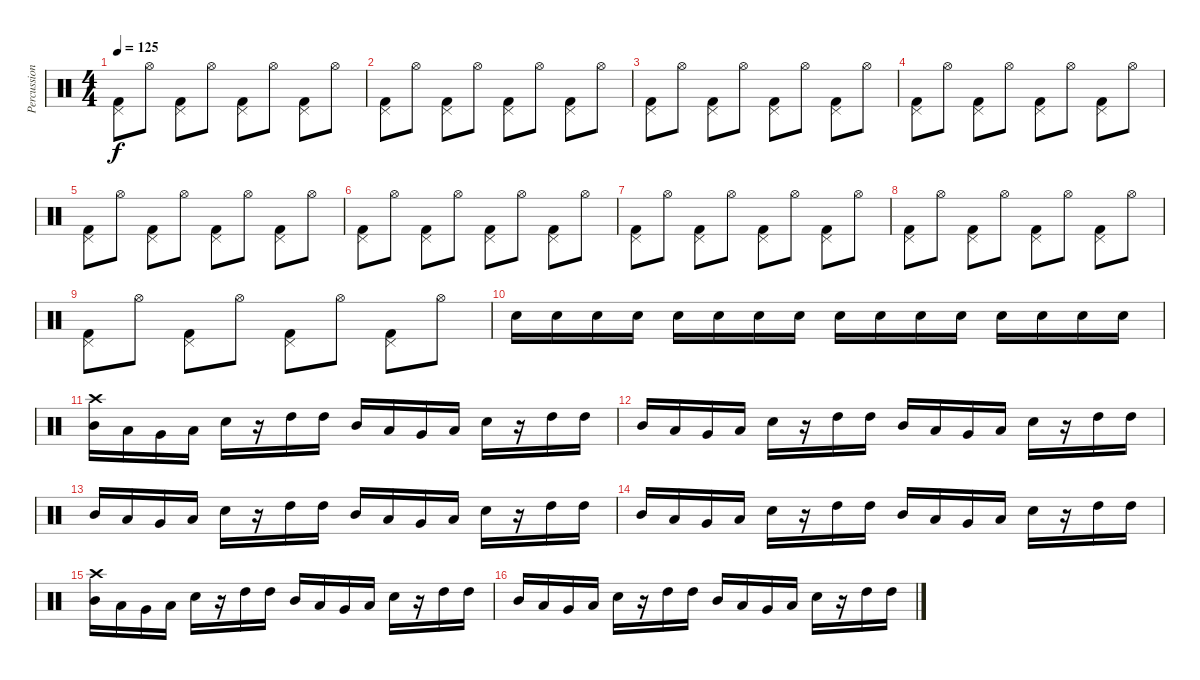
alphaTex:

\track ("Percussion" "Percussion") {instrument percussion}
\staff {score}
\articulation defaults
\ts (4 4)
\tempo 125
\clef neutral
\ks c
("Pedal Hi-Hat (hit)" "Kick (hit) 2").8{dy f} "Hi-Hat (open)".8 ("Pedal Hi-Hat (hit)" "Kick (hit) 2").8 "Hi-Hat (open)".8 ("Pedal Hi-Hat (hit)" "Kick (hit) 2").8 "Hi-Hat (open)".8 ("Pedal Hi-Hat (hit)" "Kick (hit) 2").8 "Hi-Hat (open)".8 |
("Pedal Hi-Hat (hit)" "Kick (hit) 2").8 "Hi-Hat (open)".8 ("Pedal Hi-Hat (hit)" "Kick (hit) 2").8 "Hi-Hat (open)".8 ("Pedal Hi-Hat (hit)" "Kick (hit) 2").8 "Hi-Hat (open)".8 ("Pedal Hi-Hat (hit)" "Kick (hit) 2").8 "Hi-Hat (open)".8 |
("Pedal Hi-Hat (hit)" "Kick (hit) 2").8 "Hi-Hat (open)".8 ("Pedal Hi-Hat (hit)" "Kick (hit) 2").8 "Hi-Hat (open)".8 ("Pedal Hi-Hat (hit)" "Kick (hit) 2").8 "Hi-Hat (open)".8 ("Pedal Hi-Hat (hit)" "Kick (hit) 2").8 "Hi-Hat (open)".8 |
("Pedal Hi-Hat (hit)" "Kick (hit) 2").8 "Hi-Hat (open)".8 ("Pedal Hi-Hat (hit)" "Kick (hit) 2").8 "Hi-Hat (open)".8 ("Pedal Hi-Hat (hit)" "Kick (hit) 2").8 "Hi-Hat (open)".8 ("Pedal Hi-Hat (hit)" "Kick (hit) 2").8 "Hi-Hat (open)".8 |
("Pedal Hi-Hat (hit)" "Kick (hit) 2").8 "Hi-Hat (open)".8 ("Pedal Hi-Hat (hit)" "Kick (hit) 2").8 "Hi-Hat (open)".8 ("Pedal Hi-Hat (hit)" "Kick (hit) 2").8 "Hi-Hat (open)".8 ("Pedal Hi-Hat (hit)" "Kick (hit) 2").8 "Hi-Hat (open)".8 |
("Pedal Hi-Hat (hit)" "Kick (hit) 2").8 "Hi-Hat (open)".8 ("Pedal Hi-Hat (hit)" "Kick (hit) 2").8 "Hi-Hat (open)".8 ("Pedal Hi-Hat (hit)" "Kick (hit) 2").8 "Hi-Hat (open)".8 ("Pedal Hi-Hat (hit)" "Kick (hit) 2").8 "Hi-Hat (open)".8 |
("Pedal Hi-Hat (hit)" "Kick (hit) 2").8 "Hi-Hat (open)".8 ("Pedal Hi-Hat (hit)" "Kick (hit) 2").8 "Hi-Hat (open)".8 ("Pedal Hi-Hat (hit)" "Kick (hit) 2").8 "Hi-Hat (open)".8 ("Pedal Hi-Hat (hit)" "Kick (hit) 2").8 "Hi-Hat (open)".8 |
("Pedal Hi-Hat (hit)" "Kick (hit) 2").8 "Hi-Hat (open)".8 ("Pedal Hi-Hat (hit)" "Kick (hit) 2").8 "Hi-Hat (open)".8 ("Pedal Hi-Hat (hit)" "Kick (hit) 2").8 "Hi-Hat (open)".8 ("Pedal Hi-Hat (hit)" "Kick (hit) 2").8 "Hi-Hat (open)".8 |
("Pedal Hi-Hat (hit)" "Kick (hit) 2").8 "Hi-Hat (open)".8 ("Pedal Hi-Hat (hit)" "Kick (hit) 2").8 "Hi-Hat (open)".8 ("Pedal Hi-Hat (hit)" "Kick (hit) 2").8 "Hi-Hat (open)".8 ("Pedal Hi-Hat (hit)" "Kick (hit) 2").8 "Hi-Hat (open)".8 |
"Electric Snare (hit)".16 "Electric Snare (hit)".16 "Electric Snare (hit)".16 "Electric Snare (hit)".16 "Electric Snare (hit)".16 "Electric Snare (hit)".16 "Electric Snare (hit)".16 "Electric Snare (hit)".16 "Electric Snare (hit)".16 "Electric Snare (hit)".16 "Electric Snare (hit)".16 "Electric Snare (hit)".16 "Electric Snare (hit)".16 "Electric Snare (hit)".16 "Electric Snare (hit)".16 "Electric Snare (hit)".16 |
("Crash high (hit)" "Mid Tom (hit)").16 "Low Tom (hit)".16 "Very Low Tom (hit)".16 "Low Floor Tom (hit)".16 "Electric Snare (hit)".16 r.16 "High Tom (hit)".16 "High Tom (hit)".16 "Mid Tom (hit)".16 "Low Tom (hit)".16 "Very Low Tom (hit)".16 "Low Floor Tom (hit)".16 "Electric Snare (hit)".16 r.16 "High Tom (hit)".16 "High Tom (hit)".16 |
"Mid Tom (hit)".16 "Low Tom (hit)".16 "Very Low Tom (hit)".16 "Low Floor Tom (hit)".16 "Electric Snare (hit)".16 r.16 "High Tom (hit)".16 "High Tom (hit)".16 "Mid Tom (hit)".16 "Low Tom (hit)".16 "Very Low Tom (hit)".16 "Low Floor Tom (hit)".16 "Electric Snare (hit)".16 r.16 "High Tom (hit)".16 "High Tom (hit)".16 |
"Mid Tom (hit)".16 "Low Tom (hit)".16 "Very Low Tom (hit)".16 "Low Floor Tom (hit)".16 "Electric Snare (hit)".16 r.16 "High Tom (hit)".16 "High Tom (hit)".16 "Mid Tom (hit)".16 "Low Tom (hit)".16 "Very Low Tom (hit)".16 "Low Floor Tom (hit)".16 "Electric Snare (hit)".16 r.16 "High Tom (hit)".16 "High Tom (hit)".16 |
"Mid Tom (hit)".16 "Low Tom (hit)".16 "Very Low Tom (hit)".16 "Low Floor Tom (hit)".16 "Electric Snare (hit)".16 r.16 "High Tom (hit)".16 "High Tom (hit)".16 "Mid Tom (hit)".16 "Low Tom (hit)".16 "Very Low Tom (hit)".16 "Low Floor Tom (hit)".16 "Electric Snare (hit)".16 r.16 "High Tom (hit)".16 "High Tom (hit)".16 |
("Crash high (hit)" "Mid Tom (hit)").16 "Low Tom (hit)".16 "Very Low Tom (hit)".16 "Low Floor Tom (hit)".16 "Electric Snare (hit)".16 r.16 "High Tom (hit)".16 "High Tom (hit)".16 "Mid Tom (hit)".16 "Low Tom (hit)".16 "Very Low Tom (hit)".16 "Low Floor Tom (hit)".16 "Electric Snare (hit)".16 r.16 "High Tom (hit)".16 "High Tom (hit)".16 |
"Mid Tom (hit)".16 "Low Tom (hit)".16 "Very Low Tom (hit)".16 "Low Floor Tom (hit)".16 "Electric Snare (hit)".16 r.16 "High Tom (hit)".16 "High Tom (hit)".16 "Mid Tom (hit)".16 "Low Tom (hit)".16 "Very Low Tom (hit)".16 "Low Floor Tom (hit)".16 "Electric Snare (hit)".16 r.16 "High Tom (hit)".16 "High Tom (hit)".16
